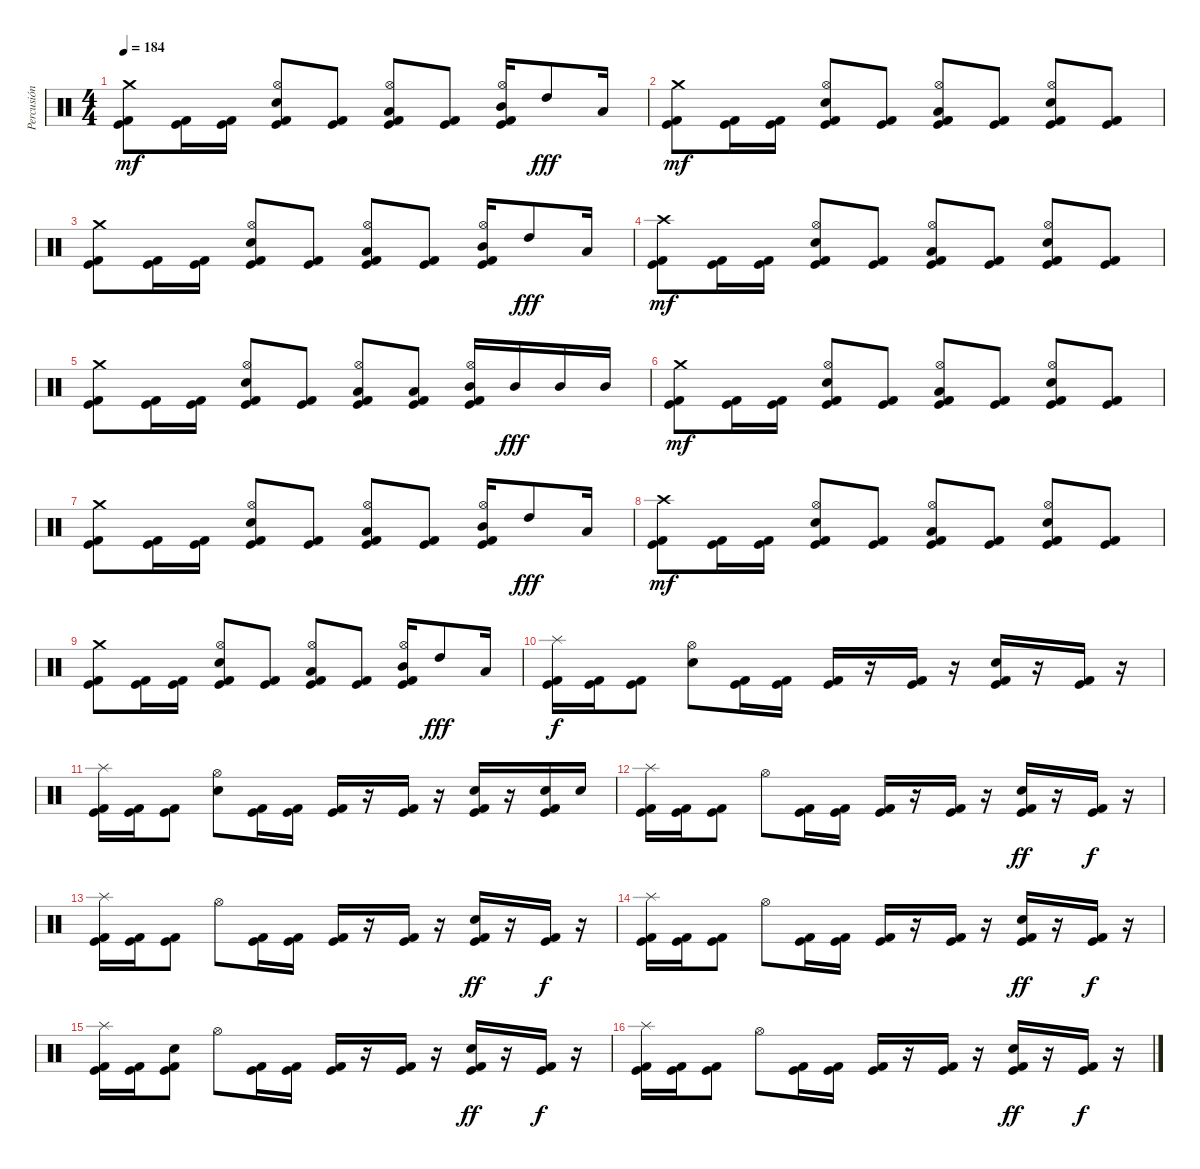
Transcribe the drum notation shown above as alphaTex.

\track ("Percusión" "Percusión") {instrument percussion}
\staff {score}
\articulation defaults
\ts (4 4)
\tempo 184
\clef neutral
\ks c
("Crash medium (hit)" "Kick (hit) 2" "Kick (hit)").8{dy mf} ("Kick (hit) 2" "Kick (hit)").16 ("Kick (hit) 2" "Kick (hit)").16 ("Hi-Hat (open)" "Electric Snare (hit)" "Kick (hit) 2" "Kick (hit)").8 ("Kick (hit) 2" "Kick (hit)").8 ("Hi-Hat (open)" "Low Floor Tom (hit)" "Kick (hit) 2" "Kick (hit)").8 ("Kick (hit) 2" "Kick (hit)").8 ("Hi-Hat (open)" "Mid Tom (hit)" "Kick (hit) 2" "Kick (hit)").16 "High Tom (hit)".8{dy fff} "Low Floor Tom (hit)".16 |
("Crash medium (hit)" "Kick (hit) 2" "Kick (hit)").8{dy mf} ("Kick (hit) 2" "Kick (hit)").16 ("Kick (hit) 2" "Kick (hit)").16 ("Hi-Hat (open)" "Electric Snare (hit)" "Kick (hit) 2" "Kick (hit)").8 ("Kick (hit) 2" "Kick (hit)").8 ("Hi-Hat (open)" "Low Floor Tom (hit)" "Kick (hit) 2" "Kick (hit)").8 ("Kick (hit) 2" "Kick (hit)").8 ("Hi-Hat (open)" "Electric Snare (hit)" "Kick (hit) 2" "Kick (hit)").8 ("Kick (hit) 2" "Kick (hit)").8 |
("Crash medium (hit)" "Kick (hit) 2" "Kick (hit)").8 ("Kick (hit) 2" "Kick (hit)").16 ("Kick (hit) 2" "Kick (hit)").16 ("Hi-Hat (open)" "Electric Snare (hit)" "Kick (hit) 2" "Kick (hit)").8 ("Kick (hit) 2" "Kick (hit)").8 ("Hi-Hat (open)" "Low Floor Tom (hit)" "Kick (hit) 2" "Kick (hit)").8 ("Kick (hit) 2" "Kick (hit)").8 ("Hi-Hat (open)" "Mid Tom (hit)" "Kick (hit) 2" "Kick (hit)").16 "High Tom (hit)".8{dy fff} "Low Floor Tom (hit)".16 |
("Crash high (hit)" "Kick (hit) 2" "Kick (hit)").8{dy mf} ("Kick (hit) 2" "Kick (hit)").16 ("Kick (hit) 2" "Kick (hit)").16 ("Hi-Hat (open)" "Electric Snare (hit)" "Kick (hit) 2" "Kick (hit)").8 ("Kick (hit) 2" "Kick (hit)").8 ("Hi-Hat (open)" "Low Floor Tom (hit)" "Kick (hit) 2" "Kick (hit)").8 ("Kick (hit) 2" "Kick (hit)").8 ("Hi-Hat (open)" "Electric Snare (hit)" "Kick (hit) 2" "Kick (hit)").8 ("Kick (hit) 2" "Kick (hit)").8 |
("Crash medium (hit)" "Kick (hit) 2" "Kick (hit)").8 ("Kick (hit) 2" "Kick (hit)").16 ("Kick (hit) 2" "Kick (hit)").16 ("Hi-Hat (open)" "Electric Snare (hit)" "Kick (hit) 2" "Kick (hit)").8 ("Kick (hit) 2" "Kick (hit)").8 ("Hi-Hat (open)" "Low Floor Tom (hit)" "Kick (hit) 2" "Kick (hit)").8 ("Low Floor Tom (hit)" "Kick (hit) 2" "Kick (hit)").8 ("Hi-Hat (open)" "Mid Tom (hit)" "Kick (hit) 2" "Kick (hit)").16 "Mid Tom (hit)".16{dy fff} "Mid Tom (hit)".16 "Mid Tom (hit)".16 |
("Crash medium (hit)" "Kick (hit) 2" "Kick (hit)").8{dy mf} ("Kick (hit) 2" "Kick (hit)").16 ("Kick (hit) 2" "Kick (hit)").16 ("Hi-Hat (open)" "Electric Snare (hit)" "Kick (hit) 2" "Kick (hit)").8 ("Kick (hit) 2" "Kick (hit)").8 ("Hi-Hat (open)" "Low Floor Tom (hit)" "Kick (hit) 2" "Kick (hit)").8 ("Kick (hit) 2" "Kick (hit)").8 ("Hi-Hat (open)" "Electric Snare (hit)" "Kick (hit) 2" "Kick (hit)").8 ("Kick (hit) 2" "Kick (hit)").8 |
("Crash medium (hit)" "Kick (hit) 2" "Kick (hit)").8 ("Kick (hit) 2" "Kick (hit)").16 ("Kick (hit) 2" "Kick (hit)").16 ("Hi-Hat (open)" "Electric Snare (hit)" "Kick (hit) 2" "Kick (hit)").8 ("Kick (hit) 2" "Kick (hit)").8 ("Hi-Hat (open)" "Low Floor Tom (hit)" "Kick (hit) 2" "Kick (hit)").8 ("Kick (hit) 2" "Kick (hit)").8 ("Hi-Hat (open)" "Mid Tom (hit)" "Kick (hit) 2" "Kick (hit)").16 "High Tom (hit)".8{dy fff} "Low Floor Tom (hit)".16 |
("Crash high (hit)" "Kick (hit) 2" "Kick (hit)").8{dy mf} ("Kick (hit) 2" "Kick (hit)").16 ("Kick (hit) 2" "Kick (hit)").16 ("Hi-Hat (open)" "Electric Snare (hit)" "Kick (hit) 2" "Kick (hit)").8 ("Kick (hit) 2" "Kick (hit)").8 ("Hi-Hat (open)" "Low Floor Tom (hit)" "Kick (hit) 2" "Kick (hit)").8 ("Kick (hit) 2" "Kick (hit)").8 ("Hi-Hat (open)" "Electric Snare (hit)" "Kick (hit) 2" "Kick (hit)").8 ("Kick (hit) 2" "Kick (hit)").8 |
("Crash medium (hit)" "Kick (hit) 2" "Kick (hit)").8 ("Kick (hit) 2" "Kick (hit)").16 ("Kick (hit) 2" "Kick (hit)").16 ("Hi-Hat (open)" "Electric Snare (hit)" "Kick (hit) 2" "Kick (hit)").8 ("Kick (hit) 2" "Kick (hit)").8 ("Hi-Hat (open)" "Low Floor Tom (hit)" "Kick (hit) 2" "Kick (hit)").8 ("Kick (hit) 2" "Kick (hit)").8 ("Hi-Hat (open)" "Mid Tom (hit)" "Kick (hit) 2" "Kick (hit)").16 "High Tom (hit)".8{dy fff} "Low Floor Tom (hit)".16 |
("Splash (hit)" "Kick (hit) 2" "Kick (hit)").16{dy f} ("Kick (hit) 2" "Kick (hit)").16 ("Kick (hit) 2" "Kick (hit)").8 ("Hi-Hat (open)" "Electric Snare (hit)").8 ("Kick (hit) 2" "Kick (hit)").16 ("Kick (hit) 2" "Kick (hit)").16 ("Kick (hit) 2" "Kick (hit)").16 r.16 ("Kick (hit) 2" "Kick (hit)").16 r.16 ("Electric Snare (hit)" "Kick (hit) 2" "Kick (hit)").16 r.16 ("Kick (hit) 2" "Kick (hit)").16 r.16 |
("Splash (hit)" "Kick (hit) 2" "Kick (hit)").16 ("Kick (hit) 2" "Kick (hit)").16 ("Kick (hit) 2" "Kick (hit)").8 ("Hi-Hat (open)" "Electric Snare (hit)").8 ("Kick (hit) 2" "Kick (hit)").16 ("Kick (hit) 2" "Kick (hit)").16 ("Kick (hit) 2" "Kick (hit)").16 r.16 ("Kick (hit) 2" "Kick (hit)").16 r.16 ("Electric Snare (hit)" "Kick (hit) 2" "Kick (hit)").16 r.16 ("Electric Snare (hit)" "Kick (hit) 2" "Kick (hit)").16 "Electric Snare (hit)".16 |
("Splash (hit)" "Kick (hit) 2" "Kick (hit)").16 ("Kick (hit) 2" "Kick (hit)").16 ("Kick (hit) 2" "Kick (hit)").8 "Hi-Hat (open)".8 ("Kick (hit) 2" "Kick (hit)").16 ("Kick (hit) 2" "Kick (hit)").16 ("Kick (hit) 2" "Kick (hit)").16 r.16 ("Kick (hit) 2" "Kick (hit)").16 r.16 ("Electric Snare (hit)" "Kick (hit) 2" "Kick (hit)").16{dy ff} r.16 ("Kick (hit) 2" "Kick (hit)").16{dy f} r.16 |
("Splash (hit)" "Kick (hit) 2" "Kick (hit)").16 ("Kick (hit) 2" "Kick (hit)").16 ("Kick (hit) 2" "Kick (hit)").8 "Hi-Hat (open)".8 ("Kick (hit) 2" "Kick (hit)").16 ("Kick (hit) 2" "Kick (hit)").16 ("Kick (hit) 2" "Kick (hit)").16 r.16 ("Kick (hit) 2" "Kick (hit)").16 r.16 ("Electric Snare (hit)" "Kick (hit) 2" "Kick (hit)").16{dy ff} r.16 ("Kick (hit) 2" "Kick (hit)").16{dy f} r.16 |
("Splash (hit)" "Kick (hit) 2" "Kick (hit)").16 ("Kick (hit) 2" "Kick (hit)").16 ("Kick (hit) 2" "Kick (hit)").8 "Hi-Hat (open)".8 ("Kick (hit) 2" "Kick (hit)").16 ("Kick (hit) 2" "Kick (hit)").16 ("Kick (hit) 2" "Kick (hit)").16 r.16 ("Kick (hit) 2" "Kick (hit)").16 r.16 ("Electric Snare (hit)" "Kick (hit) 2" "Kick (hit)").16{dy ff} r.16 ("Kick (hit) 2" "Kick (hit)").16{dy f} r.16 |
("Splash (hit)" "Kick (hit) 2" "Kick (hit)").16 ("Kick (hit) 2" "Kick (hit)").16 ("Electric Snare (hit)" "Kick (hit) 2" "Kick (hit)").8 "Hi-Hat (open)".8 ("Kick (hit) 2" "Kick (hit)").16 ("Kick (hit) 2" "Kick (hit)").16 ("Kick (hit) 2" "Kick (hit)").16 r.16 ("Kick (hit) 2" "Kick (hit)").16 r.16 ("Electric Snare (hit)" "Kick (hit) 2" "Kick (hit)").16{dy ff} r.16 ("Kick (hit) 2" "Kick (hit)").16{dy f} r.16 |
("Splash (hit)" "Kick (hit) 2" "Kick (hit)").16 ("Kick (hit) 2" "Kick (hit)").16 ("Kick (hit) 2" "Kick (hit)").8 "Hi-Hat (open)".8 ("Kick (hit) 2" "Kick (hit)").16 ("Kick (hit) 2" "Kick (hit)").16 ("Kick (hit) 2" "Kick (hit)").16 r.16 ("Kick (hit) 2" "Kick (hit)").16 r.16 ("Electric Snare (hit)" "Kick (hit) 2" "Kick (hit)").16{dy ff} r.16 ("Kick (hit) 2" "Kick (hit)").16{dy f} r.16
